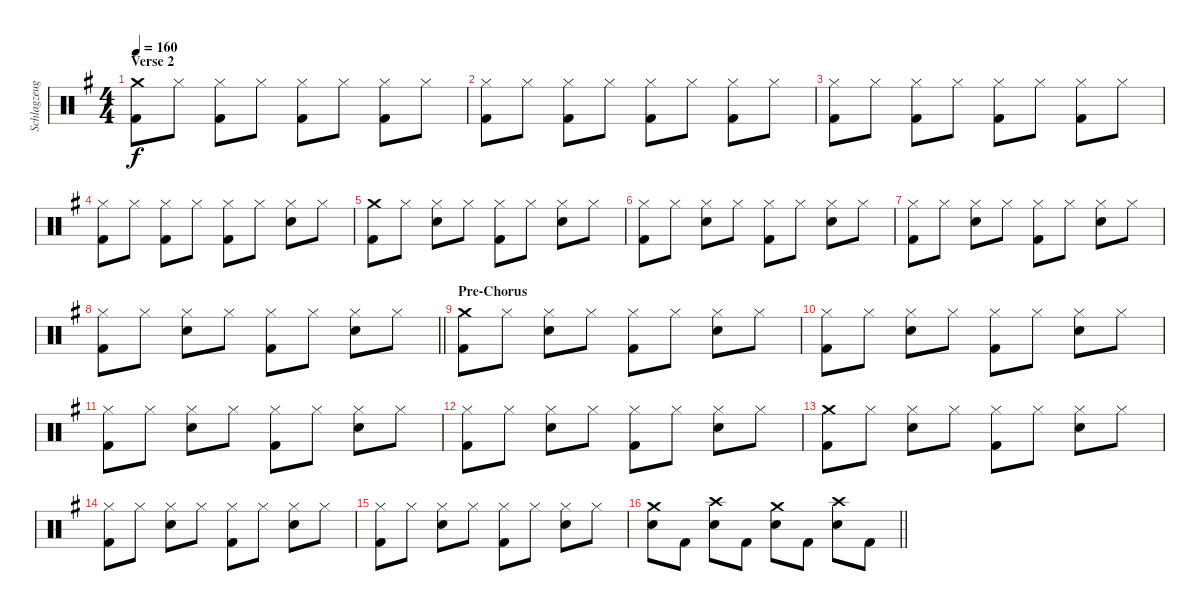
\track ("Schlagzeug" "Schlagzeug") {instrument percussion}
\staff {score}
\articulation defaults
\ts (4 4)
\section ("" "Verse 2")
\tempo 160
\clef neutral
\ks g
("Crash medium (hit)" "Kick (hit) 2").8{dy f} "Hi-Hat (closed)".8 ("Hi-Hat (closed)" "Kick (hit) 2").8 "Hi-Hat (closed)".8 ("Hi-Hat (closed)" "Kick (hit) 2").8 "Hi-Hat (closed)".8 ("Hi-Hat (closed)" "Kick (hit) 2").8 "Hi-Hat (closed)".8 |
("Hi-Hat (closed)" "Kick (hit) 2").8 "Hi-Hat (closed)".8 ("Hi-Hat (closed)" "Kick (hit) 2").8 "Hi-Hat (closed)".8 ("Hi-Hat (closed)" "Kick (hit) 2").8 "Hi-Hat (closed)".8 ("Hi-Hat (closed)" "Kick (hit) 2").8 "Hi-Hat (closed)".8 |
("Hi-Hat (closed)" "Kick (hit) 2").8 "Hi-Hat (closed)".8 ("Hi-Hat (closed)" "Kick (hit) 2").8 "Hi-Hat (closed)".8 ("Hi-Hat (closed)" "Kick (hit) 2").8 "Hi-Hat (closed)".8 ("Hi-Hat (closed)" "Kick (hit) 2").8 "Hi-Hat (closed)".8 |
("Hi-Hat (closed)" "Kick (hit) 2").8 "Hi-Hat (closed)".8 ("Hi-Hat (closed)" "Kick (hit) 2").8 "Hi-Hat (closed)".8 ("Hi-Hat (closed)" "Kick (hit) 2").8 "Hi-Hat (closed)".8 ("Hi-Hat (closed)" "Snare (hit) 2").8 "Hi-Hat (closed)".8 |
("Crash medium (hit)" "Kick (hit) 2").8 "Hi-Hat (closed)".8 ("Hi-Hat (closed)" "Snare (hit) 2").8 "Hi-Hat (closed)".8 ("Hi-Hat (closed)" "Kick (hit) 2").8 "Hi-Hat (closed)".8 ("Hi-Hat (closed)" "Snare (hit) 2").8 "Hi-Hat (closed)".8 |
("Hi-Hat (closed)" "Kick (hit) 2").8 "Hi-Hat (closed)".8 ("Hi-Hat (closed)" "Snare (hit) 2").8 "Hi-Hat (closed)".8 ("Hi-Hat (closed)" "Kick (hit) 2").8 "Hi-Hat (closed)".8 ("Hi-Hat (closed)" "Snare (hit) 2").8 "Hi-Hat (closed)".8 |
("Hi-Hat (closed)" "Kick (hit) 2").8 "Hi-Hat (closed)".8 ("Hi-Hat (closed)" "Snare (hit) 2").8 "Hi-Hat (closed)".8 ("Hi-Hat (closed)" "Kick (hit) 2").8 "Hi-Hat (closed)".8 ("Hi-Hat (closed)" "Snare (hit) 2").8 "Hi-Hat (closed)".8 |
\barLineRight lightlight
("Hi-Hat (closed)" "Kick (hit) 2").8 "Hi-Hat (closed)".8 ("Hi-Hat (closed)" "Snare (hit) 2").8 "Hi-Hat (closed)".8 ("Hi-Hat (closed)" "Kick (hit) 2").8 "Hi-Hat (closed)".8 ("Hi-Hat (closed)" "Snare (hit) 2").8 "Hi-Hat (closed)".8 |
\section ("" "Pre-Chorus")
("Crash medium (hit)" "Kick (hit) 2").8 "Hi-Hat (closed)".8 ("Hi-Hat (closed)" "Snare (hit) 2").8 "Hi-Hat (closed)".8 ("Hi-Hat (closed)" "Kick (hit) 2").8 "Hi-Hat (closed)".8 ("Hi-Hat (closed)" "Snare (hit) 2").8 "Hi-Hat (closed)".8 |
("Hi-Hat (closed)" "Kick (hit) 2").8 "Hi-Hat (closed)".8 ("Hi-Hat (closed)" "Snare (hit) 2").8 "Hi-Hat (closed)".8 ("Hi-Hat (closed)" "Kick (hit) 2").8 "Hi-Hat (closed)".8 ("Hi-Hat (closed)" "Snare (hit) 2").8 "Hi-Hat (closed)".8 |
("Hi-Hat (closed)" "Kick (hit) 2").8 "Hi-Hat (closed)".8 ("Hi-Hat (closed)" "Snare (hit) 2").8 "Hi-Hat (closed)".8 ("Hi-Hat (closed)" "Kick (hit) 2").8 "Hi-Hat (closed)".8 ("Hi-Hat (closed)" "Snare (hit) 2").8 "Hi-Hat (closed)".8 |
("Hi-Hat (closed)" "Kick (hit) 2").8 "Hi-Hat (closed)".8 ("Hi-Hat (closed)" "Snare (hit) 2").8 "Hi-Hat (closed)".8 ("Hi-Hat (closed)" "Kick (hit) 2").8 "Hi-Hat (closed)".8 ("Hi-Hat (closed)" "Snare (hit) 2").8 "Hi-Hat (closed)".8 |
("Crash medium (hit)" "Kick (hit) 2").8 "Hi-Hat (closed)".8 ("Hi-Hat (closed)" "Snare (hit) 2").8 "Hi-Hat (closed)".8 ("Hi-Hat (closed)" "Kick (hit) 2").8 "Hi-Hat (closed)".8 ("Hi-Hat (closed)" "Snare (hit) 2").8 "Hi-Hat (closed)".8 |
("Hi-Hat (closed)" "Kick (hit) 2").8 "Hi-Hat (closed)".8 ("Hi-Hat (closed)" "Snare (hit) 2").8 "Hi-Hat (closed)".8 ("Hi-Hat (closed)" "Kick (hit) 2").8 "Hi-Hat (closed)".8 ("Hi-Hat (closed)" "Snare (hit) 2").8 "Hi-Hat (closed)".8 |
("Hi-Hat (closed)" "Kick (hit) 2").8 "Hi-Hat (closed)".8 ("Hi-Hat (closed)" "Snare (hit) 2").8 "Hi-Hat (closed)".8 ("Hi-Hat (closed)" "Kick (hit) 2").8 "Hi-Hat (closed)".8 ("Hi-Hat (closed)" "Snare (hit) 2").8 "Hi-Hat (closed)".8 |
\barLineRight lightlight
("Crash medium (hit)" "Snare (hit) 2").8 "Kick (hit) 2".8 ("Crash high (hit)" "Snare (hit) 2").8 "Kick (hit) 2".8 ("Crash medium (hit)" "Snare (hit) 2").8 "Kick (hit) 2".8 ("Crash high (hit)" "Snare (hit) 2").8 "Kick (hit) 2".8
